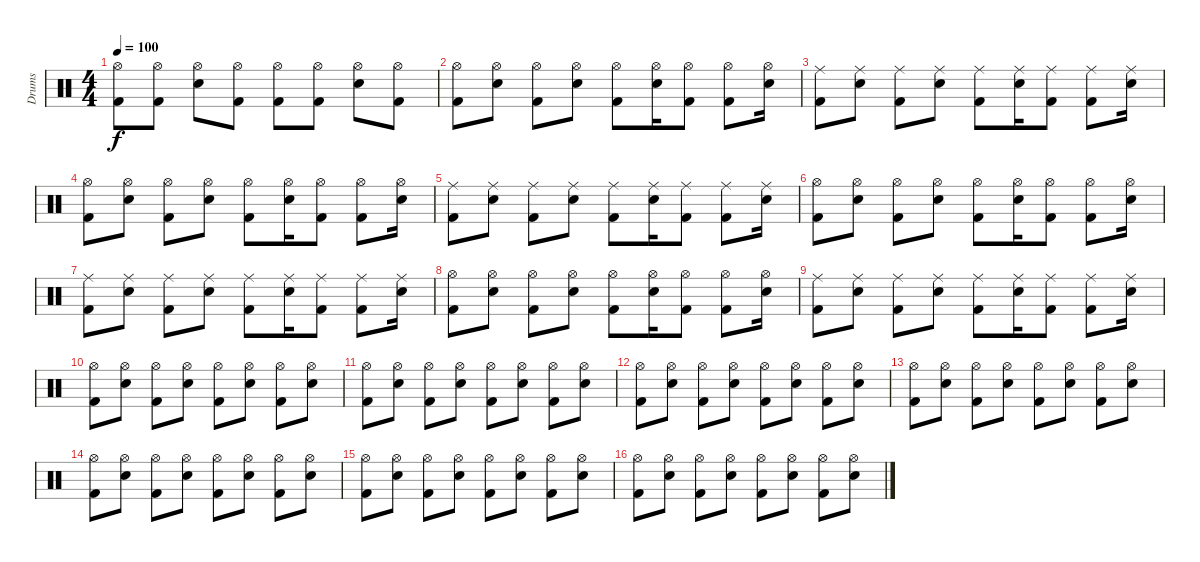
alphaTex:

\track ("Drums" "Drums") {instrument percussion}
\staff {score}
\articulation defaults
\ts (4 4)
\tempo 100
\clef neutral
\ks c
("Hi-Hat (open)" "Kick (hit) 2").8{dy f} ("Hi-Hat (open)" "Kick (hit) 2").8 ("Hi-Hat (open)" "Snare (hit) 2").8 ("Hi-Hat (open)" "Kick (hit) 2").8 ("Hi-Hat (open)" "Kick (hit) 2").8 ("Hi-Hat (open)" "Kick (hit) 2").8 ("Hi-Hat (open)" "Snare (hit) 2").8 ("Hi-Hat (open)" "Kick (hit) 2").8 |
("Hi-Hat (open)" "Kick (hit) 2").8 ("Hi-Hat (open)" "Snare (hit) 2").8 ("Hi-Hat (open)" "Kick (hit) 2").8 ("Hi-Hat (open)" "Snare (hit) 2").8 ("Hi-Hat (open)" "Kick (hit) 2").8 ("Hi-Hat (open)" "Snare (hit) 2").16 ("Hi-Hat (open)" "Kick (hit) 2").8 ("Hi-Hat (open)" "Kick (hit) 2").8 ("Hi-Hat (open)" "Snare (hit) 2").16 |
("Ride (middle)" "Kick (hit) 2").8 ("Ride (middle)" "Snare (hit) 2").8 ("Ride (middle)" "Kick (hit) 2").8 ("Ride (middle)" "Snare (hit) 2").8 ("Ride (middle)" "Kick (hit) 2").8 ("Ride (middle)" "Snare (hit) 2").16 ("Ride (middle)" "Kick (hit) 2").8 ("Ride (middle)" "Kick (hit) 2").8 ("Ride (middle)" "Snare (hit) 2").16 |
("Hi-Hat (open)" "Kick (hit) 2").8 ("Hi-Hat (open)" "Snare (hit) 2").8 ("Hi-Hat (open)" "Kick (hit) 2").8 ("Hi-Hat (open)" "Snare (hit) 2").8 ("Hi-Hat (open)" "Kick (hit) 2").8 ("Hi-Hat (open)" "Snare (hit) 2").16 ("Hi-Hat (open)" "Kick (hit) 2").8 ("Hi-Hat (open)" "Kick (hit) 2").8 ("Hi-Hat (open)" "Snare (hit) 2").16 |
("Ride (middle)" "Kick (hit) 2").8 ("Ride (middle)" "Snare (hit) 2").8 ("Ride (middle)" "Kick (hit) 2").8 ("Ride (middle)" "Snare (hit) 2").8 ("Ride (middle)" "Kick (hit) 2").8 ("Ride (middle)" "Snare (hit) 2").16 ("Ride (middle)" "Kick (hit) 2").8 ("Ride (middle)" "Kick (hit) 2").8 ("Ride (middle)" "Snare (hit) 2").16 |
("Hi-Hat (open)" "Kick (hit) 2").8 ("Hi-Hat (open)" "Snare (hit) 2").8 ("Hi-Hat (open)" "Kick (hit) 2").8 ("Hi-Hat (open)" "Snare (hit) 2").8 ("Hi-Hat (open)" "Kick (hit) 2").8 ("Hi-Hat (open)" "Snare (hit) 2").16 ("Hi-Hat (open)" "Kick (hit) 2").8 ("Hi-Hat (open)" "Kick (hit) 2").8 ("Hi-Hat (open)" "Snare (hit) 2").16 |
("Ride (middle)" "Kick (hit) 2").8 ("Ride (middle)" "Snare (hit) 2").8 ("Ride (middle)" "Kick (hit) 2").8 ("Ride (middle)" "Snare (hit) 2").8 ("Ride (middle)" "Kick (hit) 2").8 ("Ride (middle)" "Snare (hit) 2").16 ("Ride (middle)" "Kick (hit) 2").8 ("Ride (middle)" "Kick (hit) 2").8 ("Ride (middle)" "Snare (hit) 2").16 |
("Hi-Hat (open)" "Kick (hit) 2").8 ("Hi-Hat (open)" "Snare (hit) 2").8 ("Hi-Hat (open)" "Kick (hit) 2").8 ("Hi-Hat (open)" "Snare (hit) 2").8 ("Hi-Hat (open)" "Kick (hit) 2").8 ("Hi-Hat (open)" "Snare (hit) 2").16 ("Hi-Hat (open)" "Kick (hit) 2").8 ("Hi-Hat (open)" "Kick (hit) 2").8 ("Hi-Hat (open)" "Snare (hit) 2").16 |
("Ride (middle)" "Kick (hit) 2").8 ("Ride (middle)" "Snare (hit) 2").8 ("Ride (middle)" "Kick (hit) 2").8 ("Ride (middle)" "Snare (hit) 2").8 ("Ride (middle)" "Kick (hit) 2").8 ("Ride (middle)" "Snare (hit) 2").16 ("Ride (middle)" "Kick (hit) 2").8 ("Ride (middle)" "Kick (hit) 2").8 ("Ride (middle)" "Snare (hit) 2").16 |
("Hi-Hat (open)" "Kick (hit) 2").8 ("Hi-Hat (open)" "Snare (hit) 2").8 ("Hi-Hat (open)" "Kick (hit) 2").8 ("Hi-Hat (open)" "Snare (hit) 2").8 ("Hi-Hat (open)" "Kick (hit) 2").8 ("Hi-Hat (open)" "Snare (hit) 2").8 ("Hi-Hat (open)" "Kick (hit) 2").8 ("Hi-Hat (open)" "Snare (hit) 2").8 |
("Hi-Hat (open)" "Kick (hit) 2").8 ("Hi-Hat (open)" "Snare (hit) 2").8 ("Hi-Hat (open)" "Kick (hit) 2").8 ("Hi-Hat (open)" "Snare (hit) 2").8 ("Hi-Hat (open)" "Kick (hit) 2").8 ("Hi-Hat (open)" "Snare (hit) 2").8 ("Hi-Hat (open)" "Kick (hit) 2").8 ("Hi-Hat (open)" "Snare (hit) 2").8 |
("Hi-Hat (open)" "Kick (hit) 2").8 ("Hi-Hat (open)" "Snare (hit) 2").8 ("Hi-Hat (open)" "Kick (hit) 2").8 ("Hi-Hat (open)" "Snare (hit) 2").8 ("Hi-Hat (open)" "Kick (hit) 2").8 ("Hi-Hat (open)" "Snare (hit) 2").8 ("Hi-Hat (open)" "Kick (hit) 2").8 ("Hi-Hat (open)" "Snare (hit) 2").8 |
("Hi-Hat (open)" "Kick (hit) 2").8 ("Hi-Hat (open)" "Snare (hit) 2").8 ("Hi-Hat (open)" "Kick (hit) 2").8 ("Hi-Hat (open)" "Snare (hit) 2").8 ("Hi-Hat (open)" "Kick (hit) 2").8 ("Hi-Hat (open)" "Snare (hit) 2").8 ("Hi-Hat (open)" "Kick (hit) 2").8 ("Hi-Hat (open)" "Snare (hit) 2").8 |
("Hi-Hat (open)" "Kick (hit) 2").8 ("Hi-Hat (open)" "Snare (hit) 2").8 ("Hi-Hat (open)" "Kick (hit) 2").8 ("Hi-Hat (open)" "Snare (hit) 2").8 ("Hi-Hat (open)" "Kick (hit) 2").8 ("Hi-Hat (open)" "Snare (hit) 2").8 ("Hi-Hat (open)" "Kick (hit) 2").8 ("Hi-Hat (open)" "Snare (hit) 2").8 |
("Hi-Hat (open)" "Kick (hit) 2").8 ("Hi-Hat (open)" "Snare (hit) 2").8 ("Hi-Hat (open)" "Kick (hit) 2").8 ("Hi-Hat (open)" "Snare (hit) 2").8 ("Hi-Hat (open)" "Kick (hit) 2").8 ("Hi-Hat (open)" "Snare (hit) 2").8 ("Hi-Hat (open)" "Kick (hit) 2").8 ("Hi-Hat (open)" "Snare (hit) 2").8 |
("Hi-Hat (open)" "Kick (hit) 2").8 ("Hi-Hat (open)" "Snare (hit) 2").8 ("Hi-Hat (open)" "Kick (hit) 2").8 ("Hi-Hat (open)" "Snare (hit) 2").8 ("Hi-Hat (open)" "Kick (hit) 2").8 ("Hi-Hat (open)" "Snare (hit) 2").8 ("Hi-Hat (open)" "Kick (hit) 2").8 ("Hi-Hat (open)" "Snare (hit) 2").8
